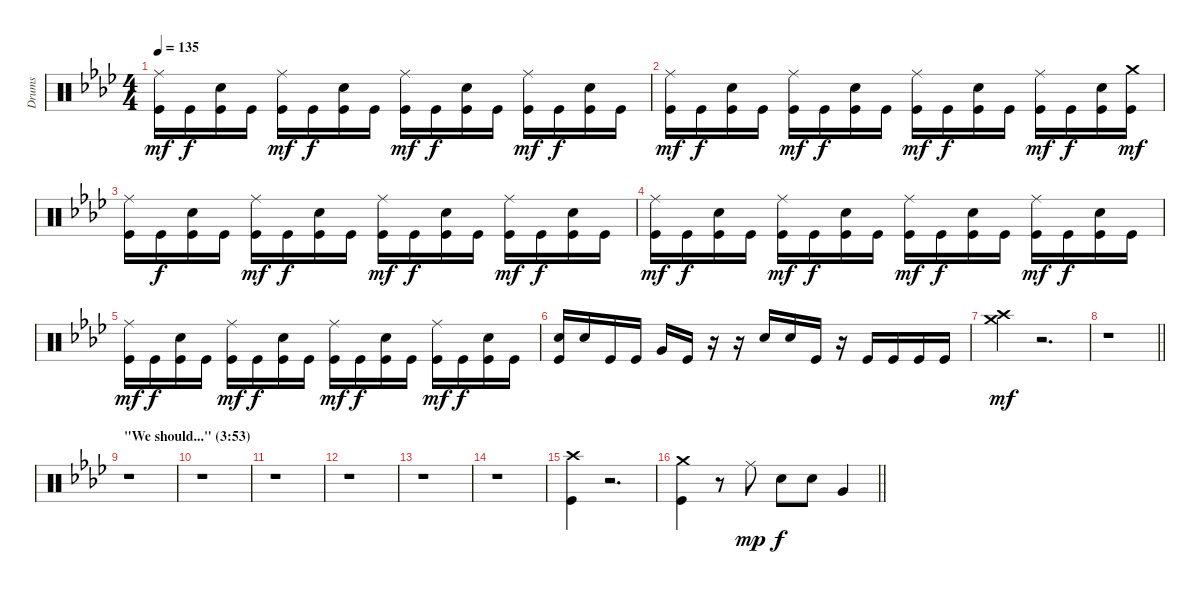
\track ("Drums" "Drums") {instrument percussion}
\staff {score}
\articulation defaults
\ts (4 4)
\tempo 135
\clef neutral
\ks fminor
("Ride (middle)" "Kick (hit)").16{dy mf} "Kick (hit)".16{dy f} ("Snare (hit) 2" "Kick (hit)").16 "Kick (hit)".16 ("Ride (middle)" "Kick (hit)").16{dy mf} "Kick (hit)".16{dy f} ("Snare (hit) 2" "Kick (hit)").16 "Kick (hit)".16 ("Ride (middle)" "Kick (hit)").16{dy mf} "Kick (hit)".16{dy f} ("Snare (hit) 2" "Kick (hit)").16 "Kick (hit)".16 ("Ride (middle)" "Kick (hit)").16{dy mf} "Kick (hit)".16{dy f} ("Snare (hit) 2" "Kick (hit)").16 "Kick (hit)".16 |
("Ride (middle)" "Kick (hit)").16{dy mf} "Kick (hit)".16{dy f} ("Snare (hit) 2" "Kick (hit)").16 "Kick (hit)".16 ("Ride (middle)" "Kick (hit)").16{dy mf} "Kick (hit)".16{dy f} ("Snare (hit) 2" "Kick (hit)").16 "Kick (hit)".16 ("Ride (middle)" "Kick (hit)").16{dy mf} "Kick (hit)".16{dy f} ("Snare (hit) 2" "Kick (hit)").16 "Kick (hit)".16 ("Ride (middle)" "Kick (hit)").16{dy mf} "Kick (hit)".16{dy f} ("Snare (hit) 2" "Kick (hit)").16 ("Crash medium (hit)" "Kick (hit)").16{dy mf} |
("Ride (middle)" "Kick (hit)").16 "Kick (hit)".16{dy f} ("Snare (hit) 2" "Kick (hit)").16 "Kick (hit)".16 ("Ride (middle)" "Kick (hit)").16{dy mf} "Kick (hit)".16{dy f} ("Snare (hit) 2" "Kick (hit)").16 "Kick (hit)".16 ("Ride (middle)" "Kick (hit)").16{dy mf} "Kick (hit)".16{dy f} ("Snare (hit) 2" "Kick (hit)").16 "Kick (hit)".16 ("Ride (middle)" "Kick (hit)").16{dy mf} "Kick (hit)".16{dy f} ("Snare (hit) 2" "Kick (hit)").16 "Kick (hit)".16 |
("Ride (middle)" "Kick (hit)").16{dy mf} "Kick (hit)".16{dy f} ("Snare (hit) 2" "Kick (hit)").16 "Kick (hit)".16 ("Ride (middle)" "Kick (hit)").16{dy mf} "Kick (hit)".16{dy f} ("Snare (hit) 2" "Kick (hit)").16 "Kick (hit)".16 ("Ride (middle)" "Kick (hit)").16{dy mf} "Kick (hit)".16{dy f} ("Snare (hit) 2" "Kick (hit)").16 "Kick (hit)".16 ("Ride (middle)" "Kick (hit)").16{dy mf} "Kick (hit)".16{dy f} ("Snare (hit) 2" "Kick (hit)").16 "Kick (hit)".16 |
("Ride (middle)" "Kick (hit)").16{dy mf} "Kick (hit)".16{dy f} ("Snare (hit) 2" "Kick (hit)").16 "Kick (hit)".16 ("Ride (middle)" "Kick (hit)").16{dy mf} "Kick (hit)".16{dy f} ("Snare (hit) 2" "Kick (hit)").16 "Kick (hit)".16 ("Ride (middle)" "Kick (hit)").16{dy mf} "Kick (hit)".16{dy f} ("Snare (hit) 2" "Kick (hit)").16 "Kick (hit)".16 ("Ride (middle)" "Kick (hit)").16{dy mf} "Kick (hit)".16{dy f} ("Snare (hit) 2" "Kick (hit)").16 "Kick (hit)".16 |
("Snare (hit) 2" "Kick (hit)").16 "Snare (hit) 2".16 "Kick (hit)".16 "Kick (hit)".16 "Very Low Tom (hit)".16 "Kick (hit)".16 r.16 r.16 "Snare (hit) 2".16 "Snare (hit) 2".16 "Kick (hit)".16 r.16 "Kick (hit)".16 "Kick (hit)".16 "Kick (hit)".16 "Kick (hit)".16 |
("Crash high (hit)" "Crash medium (hit)").4{dy mf} r.2{d} |
\barLineRight lightlight
r.1 |
\section ("" "\"We should...\" (3:53)")
r.1 |
r.1 |
r.1 |
r.1 |
r.1 |
r.1 |
("Crash high (hit)" "Kick (hit)").4 r.2{d} |
\barLineRight lightlight
("Crash medium (hit)" "Kick (hit)").4 r.8 "Ride (middle)".8{dy mp} "Snare (hit) 2".8{dy f} "Snare (hit) 2".8 "Very Low Tom (hit)".4
